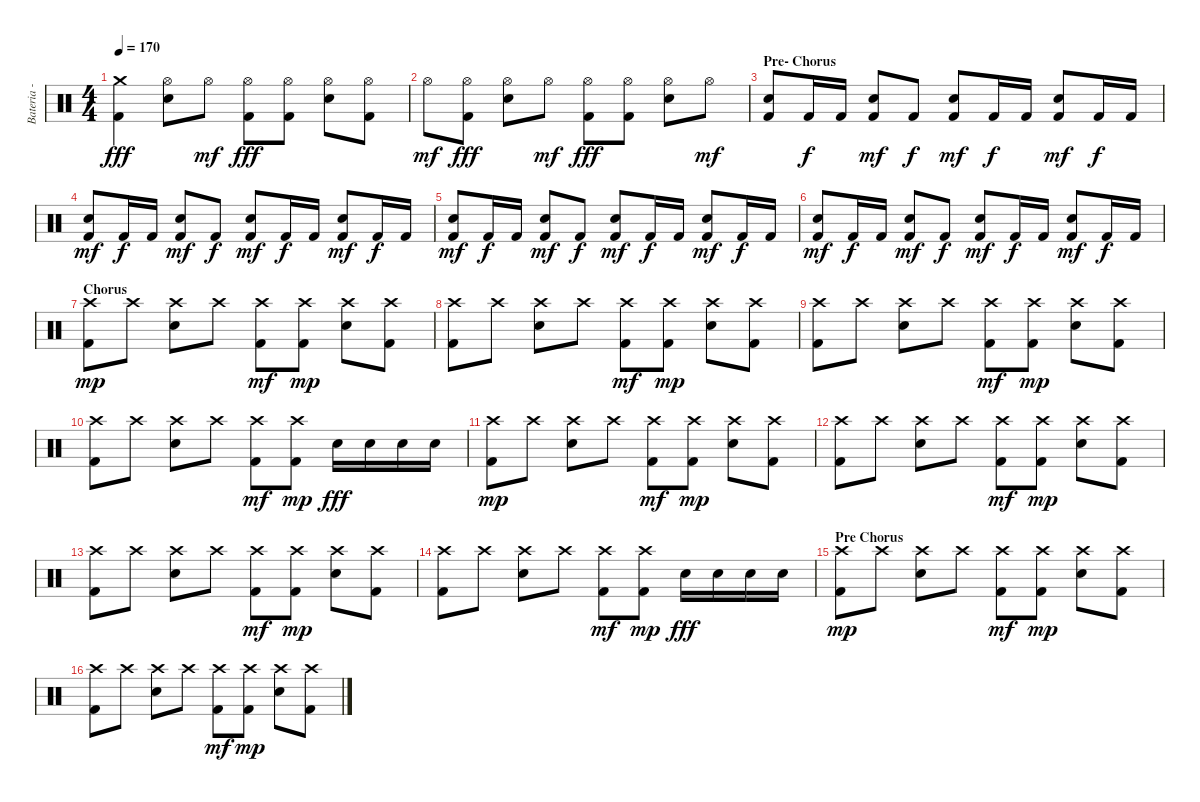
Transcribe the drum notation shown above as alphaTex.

\track ("Bateria - Larzon" "Bateria - ") {instrument percussion}
\staff {score}
\articulation defaults
\ts (4 4)
\tempo 170
\clef neutral
\ks c
("Crash medium (hit)" "Kick (hit) 2").4{dy fff} ("Hi-Hat (open)" "Snare (hit) 2").8 "Hi-Hat (open)".8{dy mf} ("Hi-Hat (open)" "Kick (hit) 2").8{dy fff} ("Hi-Hat (open)" "Kick (hit) 2").8 ("Hi-Hat (open)" "Snare (hit) 2").8 ("Hi-Hat (open)" "Kick (hit) 2").8 |
"Hi-Hat (open)".8{dy mf} ("Hi-Hat (open)" "Kick (hit) 2").8{dy fff} ("Hi-Hat (open)" "Snare (hit) 2").8 "Hi-Hat (open)".8{dy mf} ("Hi-Hat (open)" "Kick (hit) 2").8{dy fff} ("Hi-Hat (open)" "Kick (hit) 2").8 ("Hi-Hat (open)" "Snare (hit) 2").8 "Hi-Hat (open)".8{dy mf} |
\section ("" "Pre- Chorus")
("Kick (hit) 2" "Snare (hit) 2").8 "Kick (hit) 2".16{dy f} "Kick (hit) 2".16 ("Kick (hit) 2" "Snare (hit) 2").8{dy mf} "Kick (hit) 2".8{dy f} ("Kick (hit) 2" "Snare (hit) 2").8{dy mf} "Kick (hit) 2".16{dy f} "Kick (hit) 2".16 ("Kick (hit) 2" "Snare (hit) 2").8{dy mf} "Kick (hit) 2".16{dy f} "Kick (hit) 2".16 |
("Kick (hit) 2" "Snare (hit) 2").8{dy mf} "Kick (hit) 2".16{dy f} "Kick (hit) 2".16 ("Kick (hit) 2" "Snare (hit) 2").8{dy mf} "Kick (hit) 2".8{dy f} ("Kick (hit) 2" "Snare (hit) 2").8{dy mf} "Kick (hit) 2".16{dy f} "Kick (hit) 2".16 ("Kick (hit) 2" "Snare (hit) 2").8{dy mf} "Kick (hit) 2".16{dy f} "Kick (hit) 2".16 |
("Kick (hit) 2" "Snare (hit) 2").8{dy mf} "Kick (hit) 2".16{dy f} "Kick (hit) 2".16 ("Kick (hit) 2" "Snare (hit) 2").8{dy mf} "Kick (hit) 2".8{dy f} ("Kick (hit) 2" "Snare (hit) 2").8{dy mf} "Kick (hit) 2".16{dy f} "Kick (hit) 2".16 ("Kick (hit) 2" "Snare (hit) 2").8{dy mf} "Kick (hit) 2".16{dy f} "Kick (hit) 2".16 |
("Kick (hit) 2" "Snare (hit) 2").8{dy mf volume 16} "Kick (hit) 2".16{dy f} "Kick (hit) 2".16 ("Kick (hit) 2" "Snare (hit) 2").8{dy mf} "Kick (hit) 2".8{dy f} ("Kick (hit) 2" "Snare (hit) 2").8{dy mf} "Kick (hit) 2".16{dy f} "Kick (hit) 2".16 ("Kick (hit) 2" "Snare (hit) 2").8{dy mf} "Kick (hit) 2".16{dy f} "Kick (hit) 2".16 |
\section ("" "Chorus")
("Kick (hit) 2" "Crash high (hit)").8{dy mp volume 13} "Crash high (hit)".8 ("Snare (hit) 2" "Crash high (hit)").8 "Crash high (hit)".8 ("Kick (hit) 2" "Crash high (hit)").8{dy mf} ("Kick (hit) 2" "Crash high (hit)").8{dy mp} ("Snare (hit) 2" "Crash high (hit)").8 ("Kick (hit) 2" "Crash high (hit)").8 |
("Kick (hit) 2" "Crash high (hit)").8 "Crash high (hit)".8 ("Snare (hit) 2" "Crash high (hit)").8 "Crash high (hit)".8 ("Kick (hit) 2" "Crash high (hit)").8{dy mf} ("Kick (hit) 2" "Crash high (hit)").8{dy mp} ("Snare (hit) 2" "Crash high (hit)").8 ("Kick (hit) 2" "Crash high (hit)").8 |
("Kick (hit) 2" "Crash high (hit)").8 "Crash high (hit)".8 ("Snare (hit) 2" "Crash high (hit)").8 "Crash high (hit)".8 ("Kick (hit) 2" "Crash high (hit)").8{dy mf} ("Kick (hit) 2" "Crash high (hit)").8{dy mp} ("Snare (hit) 2" "Crash high (hit)").8 ("Kick (hit) 2" "Crash high (hit)").8 |
("Kick (hit) 2" "Crash high (hit)").8 "Crash high (hit)".8 ("Snare (hit) 2" "Crash high (hit)").8 "Crash high (hit)".8 ("Kick (hit) 2" "Crash high (hit)").8{dy mf} ("Kick (hit) 2" "Crash high (hit)").8{dy mp} "Snare (hit) 2".16{dy fff} "Snare (hit) 2".16 "Snare (hit) 2".16 "Snare (hit) 2".16 |
("Kick (hit) 2" "Crash high (hit)").8{dy mp} "Crash high (hit)".8 ("Snare (hit) 2" "Crash high (hit)").8 "Crash high (hit)".8 ("Kick (hit) 2" "Crash high (hit)").8{dy mf} ("Kick (hit) 2" "Crash high (hit)").8{dy mp} ("Snare (hit) 2" "Crash high (hit)").8 ("Kick (hit) 2" "Crash high (hit)").8 |
("Kick (hit) 2" "Crash high (hit)").8 "Crash high (hit)".8 ("Snare (hit) 2" "Crash high (hit)").8 "Crash high (hit)".8 ("Kick (hit) 2" "Crash high (hit)").8{dy mf} ("Kick (hit) 2" "Crash high (hit)").8{dy mp} ("Snare (hit) 2" "Crash high (hit)").8 ("Kick (hit) 2" "Crash high (hit)").8 |
("Kick (hit) 2" "Crash high (hit)").8 "Crash high (hit)".8 ("Snare (hit) 2" "Crash high (hit)").8 "Crash high (hit)".8 ("Kick (hit) 2" "Crash high (hit)").8{dy mf} ("Kick (hit) 2" "Crash high (hit)").8{dy mp} ("Snare (hit) 2" "Crash high (hit)").8 ("Kick (hit) 2" "Crash high (hit)").8 |
("Kick (hit) 2" "Crash high (hit)").8 "Crash high (hit)".8 ("Snare (hit) 2" "Crash high (hit)").8 "Crash high (hit)".8 ("Kick (hit) 2" "Crash high (hit)").8{dy mf} ("Kick (hit) 2" "Crash high (hit)").8{dy mp} "Snare (hit) 2".16{dy fff} "Snare (hit) 2".16 "Snare (hit) 2".16 "Snare (hit) 2".16 |
\section ("" "Pre Chorus")
("Kick (hit) 2" "Crash high (hit)").8{dy mp} "Crash high (hit)".8 ("Snare (hit) 2" "Crash high (hit)").8 "Crash high (hit)".8 ("Kick (hit) 2" "Crash high (hit)").8{dy mf} ("Kick (hit) 2" "Crash high (hit)").8{dy mp} ("Snare (hit) 2" "Crash high (hit)").8 ("Kick (hit) 2" "Crash high (hit)").8 |
("Kick (hit) 2" "Crash high (hit)").8 "Crash high (hit)".8 ("Snare (hit) 2" "Crash high (hit)").8 "Crash high (hit)".8 ("Kick (hit) 2" "Crash high (hit)").8{dy mf} ("Kick (hit) 2" "Crash high (hit)").8{dy mp} ("Snare (hit) 2" "Crash high (hit)").8 ("Kick (hit) 2" "Crash high (hit)").8
